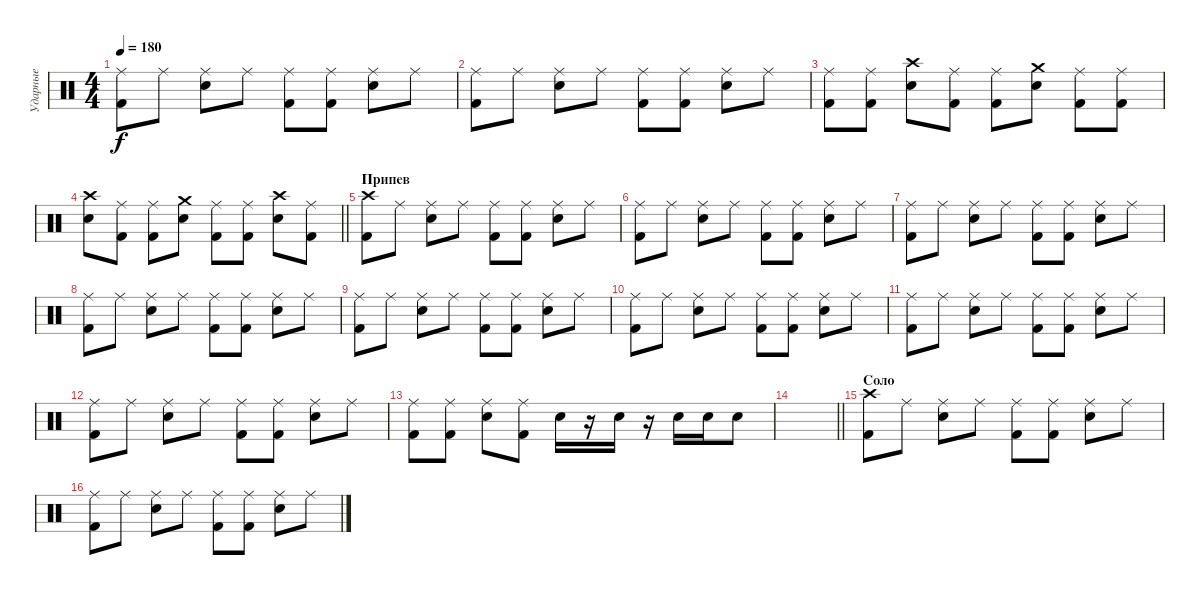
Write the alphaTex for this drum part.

\track ("Ударные" "Ударные") {instrument percussion}
\staff {score}
\articulation defaults
\ts (4 4)
\tempo 180
\clef neutral
\ks c
("Ride (middle)" "Kick (hit) 2").8{dy f} "Ride (middle)".8 ("Ride (middle)" "Electric Snare (hit)").8 "Ride (middle)".8 ("Ride (middle)" "Kick (hit) 2").8 ("Ride (middle)" "Kick (hit) 2").8 ("Ride (middle)" "Electric Snare (hit)").8 "Ride (middle)".8 |
("Ride (middle)" "Kick (hit) 2").8 "Ride (middle)".8 ("Ride (middle)" "Electric Snare (hit)").8 "Ride (middle)".8 ("Ride (middle)" "Kick (hit) 2").8 ("Ride (middle)" "Kick (hit) 2").8 ("Ride (middle)" "Electric Snare (hit)").8 "Ride (middle)".8 |
("Ride (middle)" "Kick (hit) 2").8 ("Ride (middle)" "Kick (hit) 2").8 ("Crash high (hit)" "Electric Snare (hit)").8 ("Ride (middle)" "Kick (hit) 2").8 ("Ride (middle)" "Kick (hit) 2").8 ("Crash medium (hit)" "Electric Snare (hit)").8 ("Ride (middle)" "Kick (hit) 2").8 ("Ride (middle)" "Kick (hit) 2").8 |
\barLineRight lightlight
("Crash high (hit)" "Electric Snare (hit)").8 ("Ride (middle)" "Kick (hit) 2").8 ("Ride (middle)" "Kick (hit) 2").8 ("Crash medium (hit)" "Electric Snare (hit)").8 ("Ride (middle)" "Kick (hit) 2").8 ("Ride (middle)" "Kick (hit) 2").8 ("Crash high (hit)" "Electric Snare (hit)").8 ("Ride (middle)" "Kick (hit) 2").8 |
\section ("" "Припев")
("Crash high (hit)" "Kick (hit) 2").8 "Ride (middle)".8 ("Ride (middle)" "Electric Snare (hit)").8 "Ride (middle)".8 ("Ride (middle)" "Kick (hit) 2").8 ("Ride (middle)" "Kick (hit) 2").8 ("Ride (middle)" "Electric Snare (hit)").8 "Ride (middle)".8 |
("Ride (middle)" "Kick (hit) 2").8 "Ride (middle)".8 ("Ride (middle)" "Electric Snare (hit)").8 "Ride (middle)".8 ("Ride (middle)" "Kick (hit) 2").8 ("Ride (middle)" "Kick (hit) 2").8 ("Ride (middle)" "Electric Snare (hit)").8 "Ride (middle)".8 |
("Ride (middle)" "Kick (hit) 2").8 "Ride (middle)".8 ("Ride (middle)" "Electric Snare (hit)").8 "Ride (middle)".8 ("Ride (middle)" "Kick (hit) 2").8 ("Ride (middle)" "Kick (hit) 2").8 ("Ride (middle)" "Electric Snare (hit)").8 "Ride (middle)".8 |
("Ride (middle)" "Kick (hit) 2").8 "Ride (middle)".8 ("Ride (middle)" "Electric Snare (hit)").8 "Ride (middle)".8 ("Ride (middle)" "Kick (hit) 2").8 ("Ride (middle)" "Kick (hit) 2").8 ("Ride (middle)" "Electric Snare (hit)").8 "Ride (middle)".8 |
("Ride (middle)" "Kick (hit) 2").8 "Ride (middle)".8 ("Ride (middle)" "Electric Snare (hit)").8 "Ride (middle)".8 ("Ride (middle)" "Kick (hit) 2").8 ("Ride (middle)" "Kick (hit) 2").8 ("Ride (middle)" "Electric Snare (hit)").8 "Ride (middle)".8 |
("Ride (middle)" "Kick (hit) 2").8 "Ride (middle)".8 ("Ride (middle)" "Electric Snare (hit)").8 "Ride (middle)".8 ("Ride (middle)" "Kick (hit) 2").8 ("Ride (middle)" "Kick (hit) 2").8 ("Ride (middle)" "Electric Snare (hit)").8 "Ride (middle)".8 |
("Ride (middle)" "Kick (hit) 2").8 "Ride (middle)".8 ("Ride (middle)" "Electric Snare (hit)").8 "Ride (middle)".8 ("Ride (middle)" "Kick (hit) 2").8 ("Ride (middle)" "Kick (hit) 2").8 ("Ride (middle)" "Electric Snare (hit)").8 "Ride (middle)".8 |
("Ride (middle)" "Kick (hit) 2").8 "Ride (middle)".8 ("Ride (middle)" "Electric Snare (hit)").8 "Ride (middle)".8 ("Ride (middle)" "Kick (hit) 2").8 ("Ride (middle)" "Kick (hit) 2").8 ("Ride (middle)" "Electric Snare (hit)").8 "Ride (middle)".8 |
("Ride (middle)" "Kick (hit) 2").8 ("Ride (middle)" "Kick (hit) 2").8 ("Ride (middle)" "Electric Snare (hit)").8 ("Ride (middle)" "Kick (hit) 2").8 "Electric Snare (hit)".16 r.16 "Electric Snare (hit)".16 r.16 "Electric Snare (hit)".16 "Electric Snare (hit)".16 "Electric Snare (hit)".8 |
\barLineRight lightlight
|
\section ("" "Соло")
("Crash high (hit)" "Kick (hit) 2").8 "Ride (middle)".8 ("Ride (middle)" "Electric Snare (hit)").8 "Ride (middle)".8 ("Ride (middle)" "Kick (hit) 2").8 ("Ride (middle)" "Kick (hit) 2").8 ("Ride (middle)" "Electric Snare (hit)").8 "Ride (middle)".8 |
("Ride (middle)" "Kick (hit) 2").8 "Ride (middle)".8 ("Ride (middle)" "Electric Snare (hit)").8 "Ride (middle)".8 ("Ride (middle)" "Kick (hit) 2").8 ("Ride (middle)" "Kick (hit) 2").8 ("Ride (middle)" "Electric Snare (hit)").8 "Ride (middle)".8
